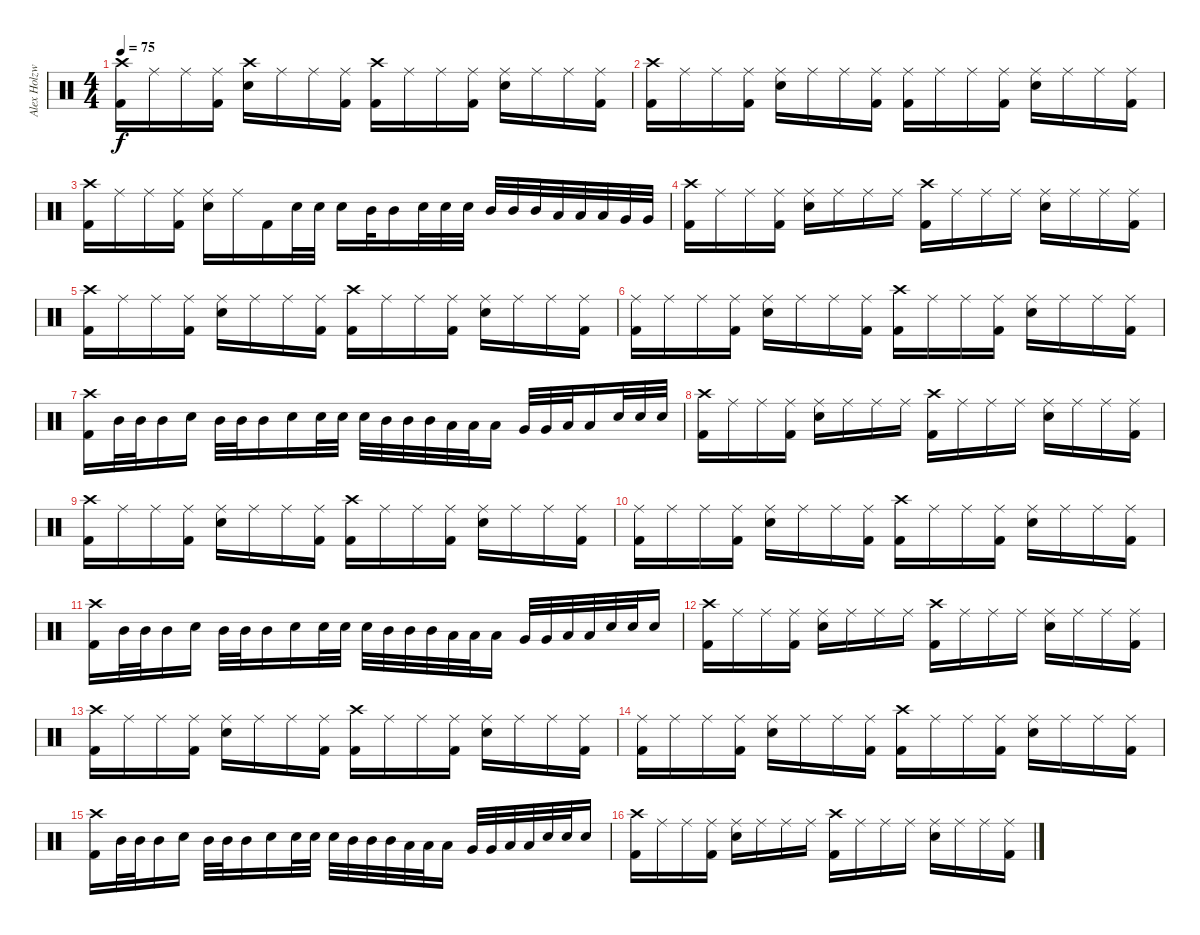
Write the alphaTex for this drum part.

\track ("Alex Holzwarth (Drums)" "Alex Holzw") {instrument percussion}
\staff {score}
\articulation defaults
\ts (4 4)
\tempo 75
\clef neutral
\ks c
("Crash high (hit)" "Kick (hit) 2").16{dy f} "Ride (middle)".16 "Ride (middle)".16 ("Ride (middle)" "Kick (hit) 2").16 ("Crash high (hit)" "Electric Snare (hit)").16 "Ride (middle)".16 "Ride (middle)".16 ("Ride (middle)" "Kick (hit) 2").16 ("Crash high (hit)" "Kick (hit) 2").16 "Ride (middle)".16 "Ride (middle)".16 ("Ride (middle)" "Kick (hit) 2").16 ("Ride (middle)" "Electric Snare (hit)").16 "Ride (middle)".16 "Ride (middle)".16 ("Ride (middle)" "Kick (hit) 2").16 |
("Crash high (hit)" "Kick (hit) 2").16 "Ride (middle)".16 "Ride (middle)".16 ("Ride (middle)" "Kick (hit) 2").16 ("Ride (middle)" "Electric Snare (hit)").16 "Ride (middle)".16 "Ride (middle)".16 ("Ride (middle)" "Kick (hit) 2").16 ("Ride (middle)" "Kick (hit) 2").16 "Ride (middle)".16 "Ride (middle)".16 ("Ride (middle)" "Kick (hit) 2").16 ("Ride (middle)" "Electric Snare (hit)").16 "Ride (middle)".16 "Ride (middle)".16 ("Ride (middle)" "Kick (hit) 2").16 |
("Crash high (hit)" "Kick (hit) 2").16 "Ride (middle)".16 "Ride (middle)".16 ("Ride (middle)" "Kick (hit) 2").16 ("Ride (middle)" "Electric Snare (hit)").16 "Ride (middle)".16 "Kick (hit) 2".16 "Electric Snare (hit)".32 "Electric Snare (hit)".32 "Electric Snare (hit)".16 "Mid Tom (hit)".32 "Mid Tom (hit)".16 "Electric Snare (hit)".32 "Electric Snare (hit)".32 "Electric Snare (hit)".32 "Mid Tom (hit)".32 "Mid Tom (hit)".32 "Mid Tom (hit)".32 "Low Tom (hit)".32 "Low Tom (hit)".32 "Low Tom (hit)".32 "Very Low Tom (hit)".32 "Very Low Tom (hit)".32 |
("Crash high (hit)" "Kick (hit) 2").16 "Ride (middle)".16 "Ride (middle)".16 ("Ride (middle)" "Kick (hit) 2").16 ("Ride (middle)" "Electric Snare (hit)").16 "Ride (middle)".16 "Ride (middle)".16 "Ride (middle)".16 ("Crash high (hit)" "Kick (hit) 2").16 "Ride (middle)".16 "Ride (middle)".16 "Ride (middle)".16 ("Ride (middle)" "Electric Snare (hit)").16 "Ride (middle)".16 "Ride (middle)".16 ("Ride (middle)" "Kick (hit) 2").16 |
("Crash high (hit)" "Kick (hit) 2").16 "Ride (middle)".16 "Ride (middle)".16 ("Ride (middle)" "Kick (hit) 2").16 ("Ride (middle)" "Electric Snare (hit)").16 "Ride (middle)".16 "Ride (middle)".16 ("Ride (middle)" "Kick (hit) 2").16 ("Crash high (hit)" "Kick (hit) 2").16 "Ride (middle)".16 "Ride (middle)".16 ("Ride (middle)" "Kick (hit) 2").16 ("Ride (middle)" "Electric Snare (hit)").16 "Ride (middle)".16 "Ride (middle)".16 ("Ride (middle)" "Kick (hit) 2").16 |
("Ride (middle)" "Kick (hit) 2").16 "Ride (middle)".16 "Ride (middle)".16 ("Ride (middle)" "Kick (hit) 2").16 ("Ride (middle)" "Electric Snare (hit)").16 "Ride (middle)".16 "Ride (middle)".16 ("Ride (middle)" "Kick (hit) 2").16 ("Crash high (hit)" "Kick (hit) 2").16 "Ride (middle)".16 "Ride (middle)".16 ("Ride (middle)" "Kick (hit) 2").16 ("Ride (middle)" "Electric Snare (hit)").16 "Ride (middle)".16 "Ride (middle)".16 ("Ride (middle)" "Kick (hit) 2").16 |
("Crash high (hit)" "Kick (hit) 2").16 "Mid Tom (hit)".32 "Mid Tom (hit)".32 "Mid Tom (hit)".16 "Electric Snare (hit)".16 "Mid Tom (hit)".32 "Mid Tom (hit)".32 "Mid Tom (hit)".16 "Electric Snare (hit)".16 "Electric Snare (hit)".32 "Electric Snare (hit)".32 "Electric Snare (hit)".32 "Mid Tom (hit)".32 "Mid Tom (hit)".32 "Mid Tom (hit)".32 "Low Tom (hit)".32 "Low Tom (hit)".32 "Low Tom (hit)".16 "Very Low Tom (hit)".32 "Very Low Tom (hit)".32 "Low Floor Tom (hit)".32 "Low Floor Tom (hit)".16 "Electric Snare (hit)".32 "Electric Snare (hit)".32 "Electric Snare (hit)".32 |
("Crash high (hit)" "Kick (hit) 2").16 "Ride (middle)".16 "Ride (middle)".16 ("Ride (middle)" "Kick (hit) 2").16 ("Ride (middle)" "Electric Snare (hit)").16 "Ride (middle)".16 "Ride (middle)".16 "Ride (middle)".16 ("Crash high (hit)" "Kick (hit) 2").16 "Ride (middle)".16 "Ride (middle)".16 "Ride (middle)".16 ("Ride (middle)" "Electric Snare (hit)").16 "Ride (middle)".16 "Ride (middle)".16 ("Ride (middle)" "Kick (hit) 2").16 |
("Crash high (hit)" "Kick (hit) 2").16 "Ride (middle)".16 "Ride (middle)".16 ("Ride (middle)" "Kick (hit) 2").16 ("Ride (middle)" "Electric Snare (hit)").16 "Ride (middle)".16 "Ride (middle)".16 ("Ride (middle)" "Kick (hit) 2").16 ("Crash high (hit)" "Kick (hit) 2").16 "Ride (middle)".16 "Ride (middle)".16 ("Ride (middle)" "Kick (hit) 2").16 ("Ride (middle)" "Electric Snare (hit)").16 "Ride (middle)".16 "Ride (middle)".16 ("Ride (middle)" "Kick (hit) 2").16 |
("Ride (middle)" "Kick (hit) 2").16 "Ride (middle)".16 "Ride (middle)".16 ("Ride (middle)" "Kick (hit) 2").16 ("Ride (middle)" "Electric Snare (hit)").16 "Ride (middle)".16 "Ride (middle)".16 ("Ride (middle)" "Kick (hit) 2").16 ("Crash high (hit)" "Kick (hit) 2").16 "Ride (middle)".16 "Ride (middle)".16 ("Ride (middle)" "Kick (hit) 2").16 ("Ride (middle)" "Electric Snare (hit)").16 "Ride (middle)".16 "Ride (middle)".16 ("Ride (middle)" "Kick (hit) 2").16 |
("Crash high (hit)" "Kick (hit) 2").16 "Mid Tom (hit)".32 "Mid Tom (hit)".32 "Mid Tom (hit)".16 "Electric Snare (hit)".16 "Mid Tom (hit)".32 "Mid Tom (hit)".32 "Mid Tom (hit)".16 "Electric Snare (hit)".16 "Electric Snare (hit)".32 "Electric Snare (hit)".32 "Electric Snare (hit)".32 "Mid Tom (hit)".32 "Mid Tom (hit)".32 "Mid Tom (hit)".32 "Low Tom (hit)".32 "Low Tom (hit)".32 "Low Tom (hit)".16 "Very Low Tom (hit)".32 "Very Low Tom (hit)".32 "Low Floor Tom (hit)".32 "Low Floor Tom (hit)".32 "Electric Snare (hit)".32 "Electric Snare (hit)".32 "Electric Snare (hit)".16 |
("Crash high (hit)" "Kick (hit) 2").16 "Ride (middle)".16 "Ride (middle)".16 ("Ride (middle)" "Kick (hit) 2").16 ("Ride (middle)" "Electric Snare (hit)").16 "Ride (middle)".16 "Ride (middle)".16 "Ride (middle)".16 ("Crash high (hit)" "Kick (hit) 2").16 "Ride (middle)".16 "Ride (middle)".16 "Ride (middle)".16 ("Ride (middle)" "Electric Snare (hit)").16 "Ride (middle)".16 "Ride (middle)".16 ("Ride (middle)" "Kick (hit) 2").16 |
("Crash high (hit)" "Kick (hit) 2").16 "Ride (middle)".16 "Ride (middle)".16 ("Ride (middle)" "Kick (hit) 2").16 ("Ride (middle)" "Electric Snare (hit)").16 "Ride (middle)".16 "Ride (middle)".16 ("Ride (middle)" "Kick (hit) 2").16 ("Crash high (hit)" "Kick (hit) 2").16 "Ride (middle)".16 "Ride (middle)".16 ("Ride (middle)" "Kick (hit) 2").16 ("Ride (middle)" "Electric Snare (hit)").16 "Ride (middle)".16 "Ride (middle)".16 ("Ride (middle)" "Kick (hit) 2").16 |
("Ride (middle)" "Kick (hit) 2").16 "Ride (middle)".16 "Ride (middle)".16 ("Ride (middle)" "Kick (hit) 2").16 ("Ride (middle)" "Electric Snare (hit)").16 "Ride (middle)".16 "Ride (middle)".16 ("Ride (middle)" "Kick (hit) 2").16 ("Crash high (hit)" "Kick (hit) 2").16 "Ride (middle)".16 "Ride (middle)".16 ("Ride (middle)" "Kick (hit) 2").16 ("Ride (middle)" "Electric Snare (hit)").16 "Ride (middle)".16 "Ride (middle)".16 ("Ride (middle)" "Kick (hit) 2").16 |
("Crash high (hit)" "Kick (hit) 2").16 "Mid Tom (hit)".32 "Mid Tom (hit)".32 "Mid Tom (hit)".16 "Electric Snare (hit)".16 "Mid Tom (hit)".32 "Mid Tom (hit)".32 "Mid Tom (hit)".16 "Electric Snare (hit)".16 "Electric Snare (hit)".32 "Electric Snare (hit)".32 "Electric Snare (hit)".32 "Mid Tom (hit)".32 "Mid Tom (hit)".32 "Mid Tom (hit)".32 "Low Tom (hit)".32 "Low Tom (hit)".32 "Low Tom (hit)".16 "Very Low Tom (hit)".32 "Very Low Tom (hit)".32 "Low Floor Tom (hit)".32 "Low Floor Tom (hit)".32 "Electric Snare (hit)".32 "Electric Snare (hit)".32 "Electric Snare (hit)".16 |
("Crash high (hit)" "Kick (hit) 2").16 "Ride (middle)".16 "Ride (middle)".16 ("Ride (middle)" "Kick (hit) 2").16 ("Ride (middle)" "Electric Snare (hit)").16 "Ride (middle)".16 "Ride (middle)".16 "Ride (middle)".16 ("Crash high (hit)" "Kick (hit) 2").16 "Ride (middle)".16 "Ride (middle)".16 "Ride (middle)".16 ("Ride (middle)" "Electric Snare (hit)").16 "Ride (middle)".16 "Ride (middle)".16 ("Ride (middle)" "Kick (hit) 2").16
